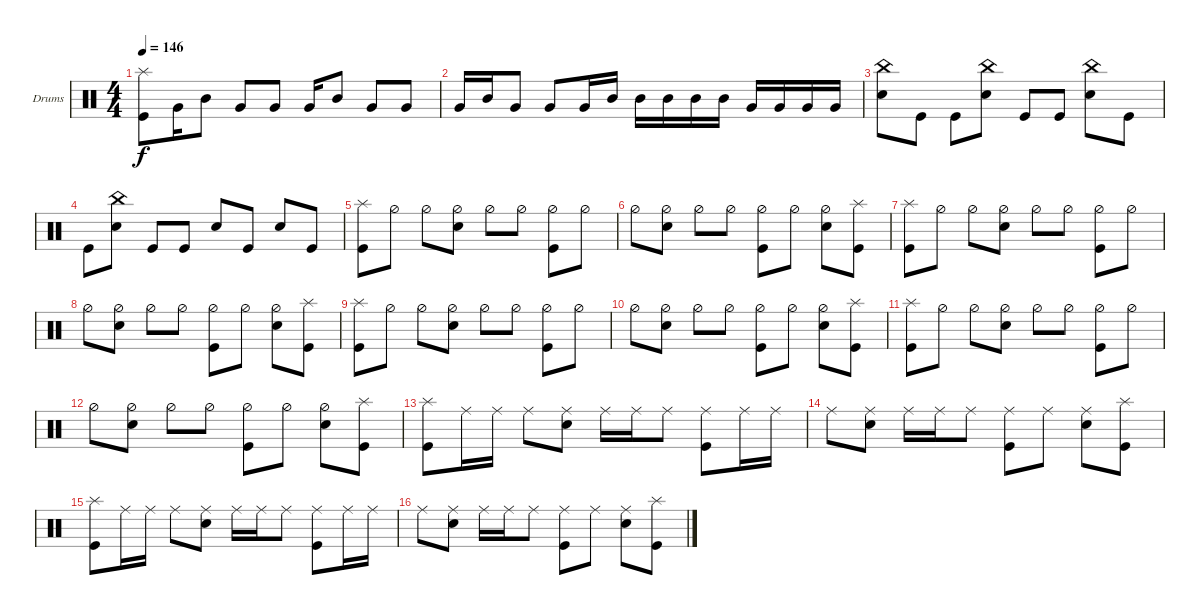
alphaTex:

\bracketExtendMode groupsimilarinstruments
\firstSystemTrackNameOrientation horizontal
\otherSystemsTrackNameOrientation horizontal
\track ("Drumkit" "Drums") {instrument percussion}
\staff {score}
\articulation defaults
\ts (4 4)
\tempo 146
\clef neutral
\scale
0.333333
\ks c
("Kick (hit)" "Splash (hit)").8{dy f} "Very Low Tom (hit)".16 "Mid Tom (hit)".8 "Very Low Tom (hit)".8 "Very Low Tom (hit)".8 "Very Low Tom (hit)".16 "Mid Tom (hit)".8 "Very Low Tom (hit)".8 "Very Low Tom (hit)".8 |
\scale
0.333333 "Very Low Tom (hit)".16 "Mid Tom (hit)".16 "Very Low Tom (hit)".8 "Very Low Tom (hit)".8 "Very Low Tom (hit)".16 "Mid Tom (hit)".16 "Mid Tom (hit)".16 "Mid Tom (hit)".16 "Mid Tom (hit)".16 "Mid Tom (hit)".16 "Very Low Tom (hit)".16 "Very Low Tom (hit)".16 "Very Low Tom (hit)".16 "Very Low Tom (hit)".16 |
\scale
0.333333 ("Snare (hit) 2" "China (hit)").8 "Kick (hit)".8 "Kick (hit)".8 ("Snare (hit) 2" "China (hit)").8 "Kick (hit)".8 "Kick (hit)".8 ("Snare (hit) 2" "China (hit)").8 "Kick (hit)".8 |
\scale
0.333333 "Kick (hit)".8 ("Snare (hit) 2" "China (hit)").8 "Kick (hit)".8 "Kick (hit)".8 "Snare (hit) 2".8 "Kick (hit)".8 "Snare (hit) 2".8 "Kick (hit)".8 |
\scale
0.333333 ("Kick (hit)" "Splash (hit)").8 "Hi-Hat (half)".8 "Hi-Hat (half)".8 ("Snare (hit) 2" "Hi-Hat (half)").8 "Hi-Hat (half)".8 "Hi-Hat (half)".8 ("Kick (hit)" "Hi-Hat (half)").8 "Hi-Hat (half)".8 |
\scale
0.333333 "Hi-Hat (half)".8 ("Snare (hit) 2" "Hi-Hat (half)").8 "Hi-Hat (half)".8 "Hi-Hat (half)".8 ("Kick (hit)" "Hi-Hat (half)").8 "Hi-Hat (half)".8 ("Snare (hit) 2" "Hi-Hat (half)").8 ("Kick (hit)" "Splash (hit)").8 |
\scale
0.333333 ("Kick (hit)" "Splash (hit)").8 "Hi-Hat (half)".8 "Hi-Hat (half)".8 ("Snare (hit) 2" "Hi-Hat (half)").8 "Hi-Hat (half)".8 "Hi-Hat (half)".8 ("Kick (hit)" "Hi-Hat (half)").8 "Hi-Hat (half)".8 |
\scale
0.333333 "Hi-Hat (half)".8 ("Snare (hit) 2" "Hi-Hat (half)").8 "Hi-Hat (half)".8 "Hi-Hat (half)".8 ("Kick (hit)" "Hi-Hat (half)").8 "Hi-Hat (half)".8 ("Snare (hit) 2" "Hi-Hat (half)").8 ("Kick (hit)" "Splash (hit)").8 |
\scale
0.333333 ("Kick (hit)" "Splash (hit)").8 "Hi-Hat (half)".8 "Hi-Hat (half)".8 ("Snare (hit) 2" "Hi-Hat (half)").8 "Hi-Hat (half)".8 "Hi-Hat (half)".8 ("Kick (hit)" "Hi-Hat (half)").8 "Hi-Hat (half)".8 |
\scale
0.333333 "Hi-Hat (half)".8 ("Snare (hit) 2" "Hi-Hat (half)").8 "Hi-Hat (half)".8 "Hi-Hat (half)".8 ("Kick (hit)" "Hi-Hat (half)").8 "Hi-Hat (half)".8 ("Snare (hit) 2" "Hi-Hat (half)").8 ("Kick (hit)" "Splash (hit)").8 |
\scale
0.333333 ("Kick (hit)" "Splash (hit)").8 "Hi-Hat (half)".8 "Hi-Hat (half)".8 ("Snare (hit) 2" "Hi-Hat (half)").8 "Hi-Hat (half)".8 "Hi-Hat (half)".8 ("Kick (hit)" "Hi-Hat (half)").8 "Hi-Hat (half)".8 |
\scale
0.333333 "Hi-Hat (half)".8 ("Snare (hit) 2" "Hi-Hat (half)").8 "Hi-Hat (half)".8 "Hi-Hat (half)".8 ("Kick (hit)" "Hi-Hat (half)").8 "Hi-Hat (half)".8 ("Snare (hit) 2" "Hi-Hat (half)").8 ("Kick (hit)" "Splash (hit)").8 |
\scale
0.333333 ("Kick (hit)" "Splash (hit)").8 "Ride (middle)".16 "Ride (middle)".16 "Ride (middle)".8 ("Snare (hit) 2" "Ride (middle)").8 "Ride (middle)".16 "Ride (middle)".16 "Ride (middle)".8 ("Kick (hit)" "Ride (middle)").8 "Ride (middle)".16 "Ride (middle)".16 |
\scale
0.333333 "Ride (middle)".8 ("Snare (hit) 2" "Ride (middle)").8 "Ride (middle)".16 "Ride (middle)".16 "Ride (middle)".8 ("Kick (hit)" "Ride (middle)").8 "Ride (middle)".8 ("Snare (hit) 2" "Ride (middle)").8 ("Kick (hit)" "Splash (hit)").8 |
\scale
0.333333 ("Kick (hit)" "Splash (hit)").8 "Ride (middle)".16 "Ride (middle)".16 "Ride (middle)".8 ("Snare (hit) 2" "Ride (middle)").8 "Ride (middle)".16 "Ride (middle)".16 "Ride (middle)".8 ("Kick (hit)" "Ride (middle)").8 "Ride (middle)".16 "Ride (middle)".16 |
\scale
0.333333 "Ride (middle)".8 ("Snare (hit) 2" "Ride (middle)").8 "Ride (middle)".16 "Ride (middle)".16 "Ride (middle)".8 ("Kick (hit)" "Ride (middle)").8 "Ride (middle)".8 ("Snare (hit) 2" "Ride (middle)").8 ("Kick (hit)" "Splash (hit)").8
